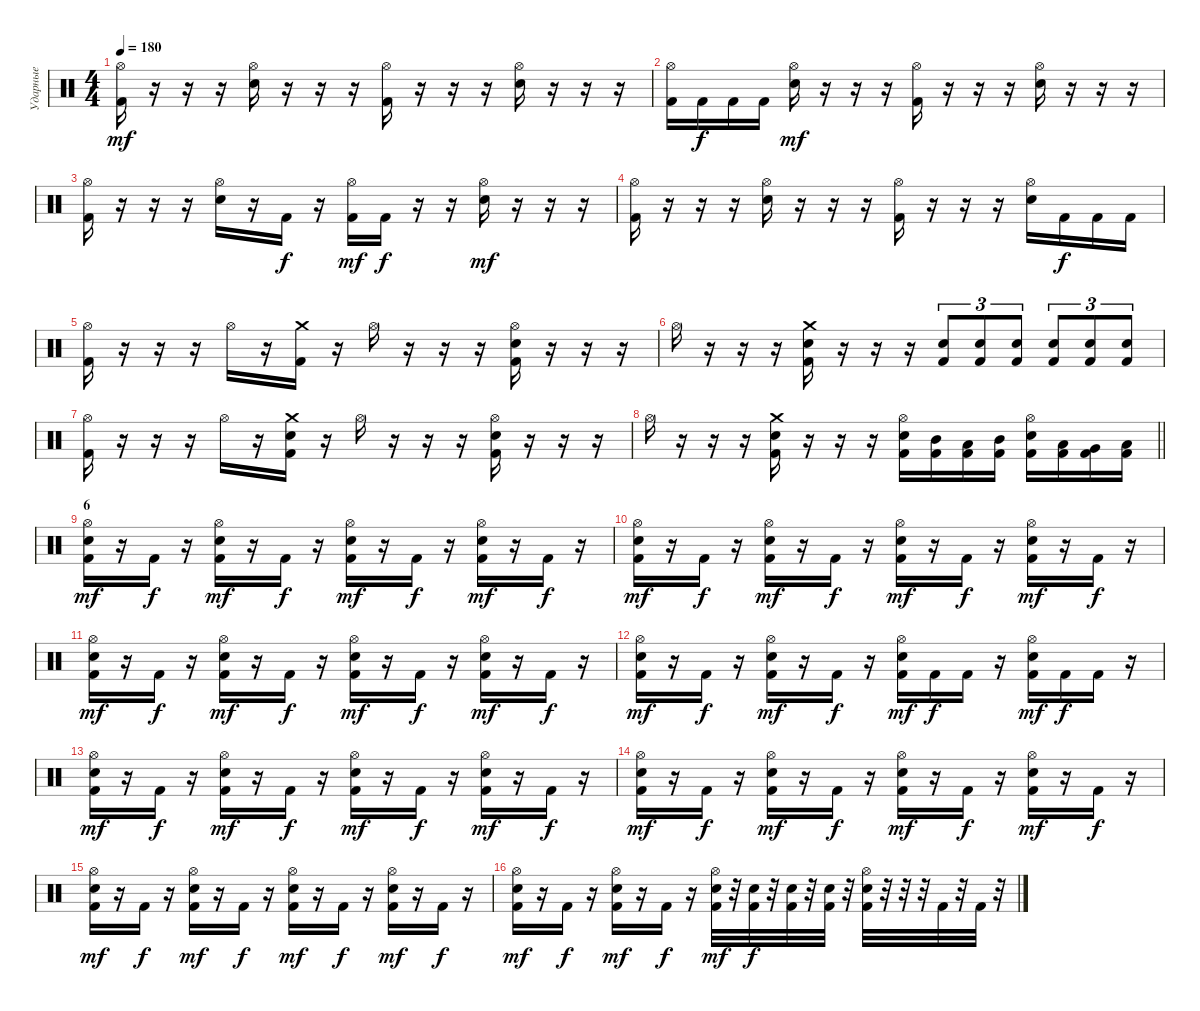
\track ("Ударные" "Ударные") {instrument percussion}
\staff {score}
\articulation defaults
\ts (4 4)
\tempo 180
\clef neutral
\ks c
("Hi-Hat (open)" "Kick (hit) 2").16{dy mf} r.16 r.16 r.16 ("Hi-Hat (open)" "Snare (hit) 2").16 r.16 r.16 r.16 ("Hi-Hat (open)" "Kick (hit) 2").16 r.16 r.16 r.16 ("Hi-Hat (open)" "Snare (hit) 2").16 r.16 r.16 r.16 |
("Hi-Hat (open)" "Kick (hit) 2").16 "Kick (hit) 2".16{dy f} "Kick (hit) 2".16 "Kick (hit) 2".16 ("Hi-Hat (open)" "Snare (hit) 2").16{dy mf} r.16 r.16 r.16 ("Hi-Hat (open)" "Kick (hit) 2").16 r.16 r.16 r.16 ("Hi-Hat (open)" "Snare (hit) 2").16 r.16 r.16 r.16 |
("Hi-Hat (open)" "Kick (hit) 2").16 r.16 r.16 r.16 ("Hi-Hat (open)" "Snare (hit) 2").16 r.16 "Kick (hit) 2".16{dy f} r.16 ("Hi-Hat (open)" "Kick (hit) 2").16{dy mf} "Kick (hit) 2".16{dy f} r.16 r.16 ("Hi-Hat (open)" "Snare (hit) 2").16{dy mf} r.16 r.16 r.16 |
("Hi-Hat (open)" "Kick (hit) 2").16 r.16 r.16 r.16 ("Hi-Hat (open)" "Snare (hit) 2").16 r.16 r.16 r.16 ("Hi-Hat (open)" "Kick (hit) 2").16 r.16 r.16 r.16 ("Hi-Hat (open)" "Snare (hit) 2").16 "Kick (hit) 2".16{dy f} "Kick (hit) 2".16 "Kick (hit) 2".16 |
("Hi-Hat (open)" "Kick (hit) 2").16 r.16 r.16 r.16 "Hi-Hat (open)".16 r.16 ("Crash medium (hit)" "Kick (hit) 2").16 r.16 "Hi-Hat (open)".16 r.16 r.16 r.16 ("Hi-Hat (open)" "Snare (hit) 2" "Kick (hit) 2").16 r.16 r.16 r.16 |
"Hi-Hat (open)".16 r.16 r.16 r.16 ("Crash medium (hit)" "Snare (hit) 2" "Kick (hit) 2").16 r.16 r.16 r.16 ("Snare (hit) 2" "Kick (hit) 2").8{tu (3 2)} ("Snare (hit) 2" "Kick (hit) 2").8{tu (3 2)} ("Snare (hit) 2" "Kick (hit) 2").8{tu (3 2)} ("Snare (hit) 2" "Kick (hit) 2").8{tu (3 2)} ("Snare (hit) 2" "Kick (hit) 2").8{tu (3 2)} ("Snare (hit) 2" "Kick (hit) 2").8{tu (3 2)} |
("Hi-Hat (open)" "Kick (hit) 2").16 r.16 r.16 r.16 "Hi-Hat (open)".16 r.16 ("Crash medium (hit)" "Snare (hit) 2" "Kick (hit) 2").16 r.16 "Hi-Hat (open)".16 r.16 r.16 r.16 ("Hi-Hat (open)" "Snare (hit) 2" "Kick (hit) 2").16 r.16 r.16 r.16 |
\barLineRight lightlight "Hi-Hat (open)".16
r.16 r.16 r.16 ("Crash medium (hit)" "Snare (hit) 2" "Kick (hit) 2").16 r.16 r.16 r.16 ("Hi-Hat (open)" "Snare (hit) 2" "Kick (hit) 2").16 ("Mid Tom (hit)" "Kick (hit) 2").16 ("Low Tom (hit)" "Kick (hit) 2").16 ("Mid Tom (hit)" "Kick (hit) 2").16 ("Hi-Hat (open)" "Snare (hit) 2" "Kick (hit) 2").16 ("Low Tom (hit)" "Kick (hit) 2").16 ("Very Low Tom (hit)" "Kick (hit) 2").16 ("Low Tom (hit)" "Kick (hit) 2").16 |
\section ("" "6")
("Hi-Hat (open)" "Snare (hit) 2" "Kick (hit) 2").16{dy mf} r.16 "Kick (hit) 2".16{dy f} r.16 ("Hi-Hat (open)" "Snare (hit) 2" "Kick (hit) 2").16{dy mf} r.16 "Kick (hit) 2".16{dy f} r.16 ("Hi-Hat (open)" "Snare (hit) 2" "Kick (hit) 2").16{dy mf} r.16 "Kick (hit) 2".16{dy f} r.16 ("Hi-Hat (open)" "Snare (hit) 2" "Kick (hit) 2").16{dy mf} r.16 "Kick (hit) 2".16{dy f} r.16 |
("Hi-Hat (open)" "Snare (hit) 2" "Kick (hit) 2").16{dy mf} r.16 "Kick (hit) 2".16{dy f} r.16 ("Hi-Hat (open)" "Snare (hit) 2" "Kick (hit) 2").16{dy mf} r.16 "Kick (hit) 2".16{dy f} r.16 ("Hi-Hat (open)" "Snare (hit) 2" "Kick (hit) 2").16{dy mf} r.16 "Kick (hit) 2".16{dy f} r.16 ("Hi-Hat (open)" "Snare (hit) 2" "Kick (hit) 2").16{dy mf} r.16 "Kick (hit) 2".16{dy f} r.16 |
("Hi-Hat (open)" "Snare (hit) 2" "Kick (hit) 2").16{dy mf} r.16 "Kick (hit) 2".16{dy f} r.16 ("Hi-Hat (open)" "Snare (hit) 2" "Kick (hit) 2").16{dy mf} r.16 "Kick (hit) 2".16{dy f} r.16 ("Hi-Hat (open)" "Snare (hit) 2" "Kick (hit) 2").16{dy mf} r.16 "Kick (hit) 2".16{dy f} r.16 ("Hi-Hat (open)" "Snare (hit) 2" "Kick (hit) 2").16{dy mf} r.16 "Kick (hit) 2".16{dy f} r.16 |
("Hi-Hat (open)" "Snare (hit) 2" "Kick (hit) 2").16{dy mf} r.16 "Kick (hit) 2".16{dy f} r.16 ("Hi-Hat (open)" "Snare (hit) 2" "Kick (hit) 2").16{dy mf} r.16 "Kick (hit) 2".16{dy f} r.16 ("Hi-Hat (open)" "Snare (hit) 2" "Kick (hit) 2").16{dy mf} "Kick (hit) 2".16{dy f} "Kick (hit) 2".16 r.16 ("Hi-Hat (open)" "Snare (hit) 2" "Kick (hit) 2").16{dy mf} "Kick (hit) 2".16{dy f} "Kick (hit) 2".16 r.16 |
("Hi-Hat (open)" "Snare (hit) 2" "Kick (hit) 2").16{dy mf} r.16 "Kick (hit) 2".16{dy f} r.16 ("Hi-Hat (open)" "Snare (hit) 2" "Kick (hit) 2").16{dy mf} r.16 "Kick (hit) 2".16{dy f} r.16 ("Hi-Hat (open)" "Snare (hit) 2" "Kick (hit) 2").16{dy mf} r.16 "Kick (hit) 2".16{dy f} r.16 ("Hi-Hat (open)" "Snare (hit) 2" "Kick (hit) 2").16{dy mf} r.16 "Kick (hit) 2".16{dy f} r.16 |
("Hi-Hat (open)" "Snare (hit) 2" "Kick (hit) 2").16{dy mf} r.16 "Kick (hit) 2".16{dy f} r.16 ("Hi-Hat (open)" "Snare (hit) 2" "Kick (hit) 2").16{dy mf} r.16 "Kick (hit) 2".16{dy f} r.16 ("Hi-Hat (open)" "Snare (hit) 2" "Kick (hit) 2").16{dy mf} r.16 "Kick (hit) 2".16{dy f} r.16 ("Hi-Hat (open)" "Snare (hit) 2" "Kick (hit) 2").16{dy mf} r.16 "Kick (hit) 2".16{dy f} r.16 |
("Hi-Hat (open)" "Snare (hit) 2" "Kick (hit) 2").16{dy mf} r.16 "Kick (hit) 2".16{dy f} r.16 ("Hi-Hat (open)" "Snare (hit) 2" "Kick (hit) 2").16{dy mf} r.16 "Kick (hit) 2".16{dy f} r.16 ("Hi-Hat (open)" "Snare (hit) 2" "Kick (hit) 2").16{dy mf} r.16 "Kick (hit) 2".16{dy f} r.16 ("Hi-Hat (open)" "Snare (hit) 2" "Kick (hit) 2").16{dy mf} r.16 "Kick (hit) 2".16{dy f} r.16 |
("Hi-Hat (open)" "Snare (hit) 2" "Kick (hit) 2").16{dy mf} r.16 "Kick (hit) 2".16{dy f} r.16 ("Hi-Hat (open)" "Snare (hit) 2" "Kick (hit) 2").16{dy mf} r.16 "Kick (hit) 2".16{dy f} r.16 ("Hi-Hat (open)" "Snare (hit) 2" "Kick (hit) 2").32{dy mf} r.32 ("Snare (hit) 2" "Kick (hit) 2").32{dy f} r.32 ("Snare (hit) 2" "Kick (hit) 2").32 r.32 ("Snare (hit) 2" "Kick (hit) 2").32 r.32 ("Hi-Hat (open)" "Snare (hit) 2" "Kick (hit) 2").32 r.32 r.32 r.32 "Kick (hit) 2".32 r.32 "Kick (hit) 2".32 r.32
